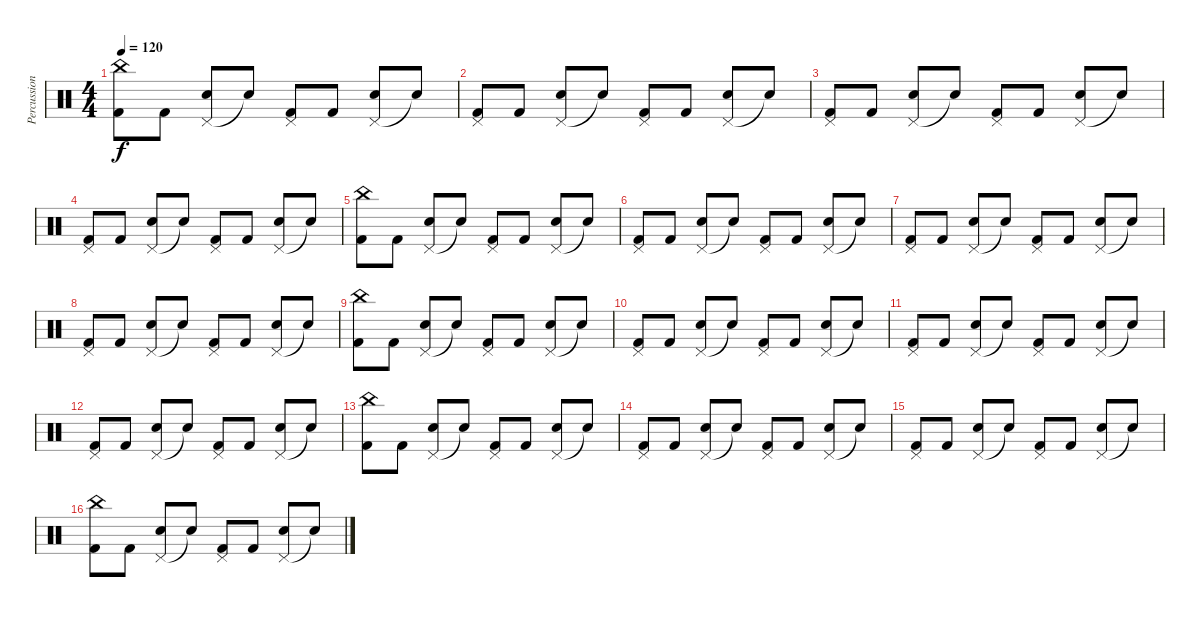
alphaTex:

\track ("Percussions" "Percussion") {instrument percussion}
\staff {score}
\articulation defaults
\ts (4 4)
\tempo 120
\clef neutral
\ks c
("China (hit)" "Kick (hit) 2").8{dy f} "Kick (hit) 2".8 ("Pedal Hi-Hat (hit)" "Snare (hit) 2").8 "Snare (hit)"{t}.8 ("Pedal Hi-Hat (hit)" "Kick (hit) 2").8 "Kick (hit) 2".8 ("Pedal Hi-Hat (hit)" "Snare (hit) 2").8 "Snare (hit)"{t}.8 |
("Pedal Hi-Hat (hit)" "Kick (hit) 2").8 "Kick (hit) 2".8 ("Pedal Hi-Hat (hit)" "Snare (hit) 2").8 "Snare (hit)"{t}.8 ("Pedal Hi-Hat (hit)" "Kick (hit) 2").8 "Kick (hit) 2".8 ("Pedal Hi-Hat (hit)" "Snare (hit) 2").8 "Snare (hit)"{t}.8 |
("Pedal Hi-Hat (hit)" "Kick (hit) 2").8 "Kick (hit) 2".8 ("Pedal Hi-Hat (hit)" "Snare (hit) 2").8 "Snare (hit)"{t}.8 ("Pedal Hi-Hat (hit)" "Kick (hit) 2").8 "Kick (hit) 2".8 ("Pedal Hi-Hat (hit)" "Snare (hit) 2").8 "Snare (hit)"{t}.8 |
("Pedal Hi-Hat (hit)" "Kick (hit) 2").8 "Kick (hit) 2".8 ("Pedal Hi-Hat (hit)" "Snare (hit) 2").8 "Snare (hit)"{t}.8 ("Pedal Hi-Hat (hit)" "Kick (hit) 2").8 "Kick (hit) 2".8 ("Pedal Hi-Hat (hit)" "Snare (hit) 2").8 "Snare (hit)"{t}.8 |
("China (hit)" "Kick (hit) 2").8 "Kick (hit) 2".8 ("Pedal Hi-Hat (hit)" "Snare (hit) 2").8 "Snare (hit)"{t}.8 ("Pedal Hi-Hat (hit)" "Kick (hit) 2").8 "Kick (hit) 2".8 ("Pedal Hi-Hat (hit)" "Snare (hit) 2").8 "Snare (hit)"{t}.8 |
("Pedal Hi-Hat (hit)" "Kick (hit) 2").8 "Kick (hit) 2".8 ("Pedal Hi-Hat (hit)" "Snare (hit) 2").8 "Snare (hit)"{t}.8 ("Pedal Hi-Hat (hit)" "Kick (hit) 2").8 "Kick (hit) 2".8 ("Pedal Hi-Hat (hit)" "Snare (hit) 2").8 "Snare (hit)"{t}.8 |
("Pedal Hi-Hat (hit)" "Kick (hit) 2").8 "Kick (hit) 2".8 ("Pedal Hi-Hat (hit)" "Snare (hit) 2").8 "Snare (hit)"{t}.8 ("Pedal Hi-Hat (hit)" "Kick (hit) 2").8 "Kick (hit) 2".8 ("Pedal Hi-Hat (hit)" "Snare (hit) 2").8 "Snare (hit)"{t}.8 |
("Pedal Hi-Hat (hit)" "Kick (hit) 2").8 "Kick (hit) 2".8 ("Pedal Hi-Hat (hit)" "Snare (hit) 2").8 "Snare (hit)"{t}.8 ("Pedal Hi-Hat (hit)" "Kick (hit) 2").8 "Kick (hit) 2".8 ("Pedal Hi-Hat (hit)" "Snare (hit) 2").8 "Snare (hit)"{t}.8 |
("China (hit)" "Kick (hit) 2").8 "Kick (hit) 2".8 ("Pedal Hi-Hat (hit)" "Snare (hit) 2").8 "Snare (hit)"{t}.8 ("Pedal Hi-Hat (hit)" "Kick (hit) 2").8 "Kick (hit) 2".8 ("Pedal Hi-Hat (hit)" "Snare (hit) 2").8 "Snare (hit)"{t}.8 |
("Pedal Hi-Hat (hit)" "Kick (hit) 2").8 "Kick (hit) 2".8 ("Pedal Hi-Hat (hit)" "Snare (hit) 2").8 "Snare (hit)"{t}.8 ("Pedal Hi-Hat (hit)" "Kick (hit) 2").8 "Kick (hit) 2".8 ("Pedal Hi-Hat (hit)" "Snare (hit) 2").8 "Snare (hit)"{t}.8 |
("Pedal Hi-Hat (hit)" "Kick (hit) 2").8 "Kick (hit) 2".8 ("Pedal Hi-Hat (hit)" "Snare (hit) 2").8 "Snare (hit)"{t}.8 ("Pedal Hi-Hat (hit)" "Kick (hit) 2").8 "Kick (hit) 2".8 ("Pedal Hi-Hat (hit)" "Snare (hit) 2").8 "Snare (hit)"{t}.8 |
("Pedal Hi-Hat (hit)" "Kick (hit) 2").8 "Kick (hit) 2".8 ("Pedal Hi-Hat (hit)" "Snare (hit) 2").8 "Snare (hit)"{t}.8 ("Pedal Hi-Hat (hit)" "Kick (hit) 2").8 "Kick (hit) 2".8 ("Pedal Hi-Hat (hit)" "Snare (hit) 2").8 "Snare (hit)"{t}.8 |
("China (hit)" "Kick (hit) 2").8 "Kick (hit) 2".8 ("Pedal Hi-Hat (hit)" "Snare (hit) 2").8 "Snare (hit)"{t}.8 ("Pedal Hi-Hat (hit)" "Kick (hit) 2").8 "Kick (hit) 2".8 ("Pedal Hi-Hat (hit)" "Snare (hit) 2").8 "Snare (hit)"{t}.8 |
("Pedal Hi-Hat (hit)" "Kick (hit) 2").8 "Kick (hit) 2".8 ("Pedal Hi-Hat (hit)" "Snare (hit) 2").8 "Snare (hit)"{t}.8 ("Pedal Hi-Hat (hit)" "Kick (hit) 2").8 "Kick (hit) 2".8 ("Pedal Hi-Hat (hit)" "Snare (hit) 2").8 "Snare (hit)"{t}.8 |
("Pedal Hi-Hat (hit)" "Kick (hit) 2").8 "Kick (hit) 2".8 ("Pedal Hi-Hat (hit)" "Snare (hit) 2").8 "Snare (hit)"{t}.8 ("Pedal Hi-Hat (hit)" "Kick (hit) 2").8 "Kick (hit) 2".8 ("Pedal Hi-Hat (hit)" "Snare (hit) 2").8 "Snare (hit)"{t}.8 |
("China (hit)" "Kick (hit) 2").8 "Kick (hit) 2".8 ("Pedal Hi-Hat (hit)" "Snare (hit) 2").8 "Snare (hit)"{t}.8 ("Pedal Hi-Hat (hit)" "Kick (hit) 2").8 "Kick (hit) 2".8 ("Pedal Hi-Hat (hit)" "Snare (hit) 2").8 "Snare (hit)"{t}.8
